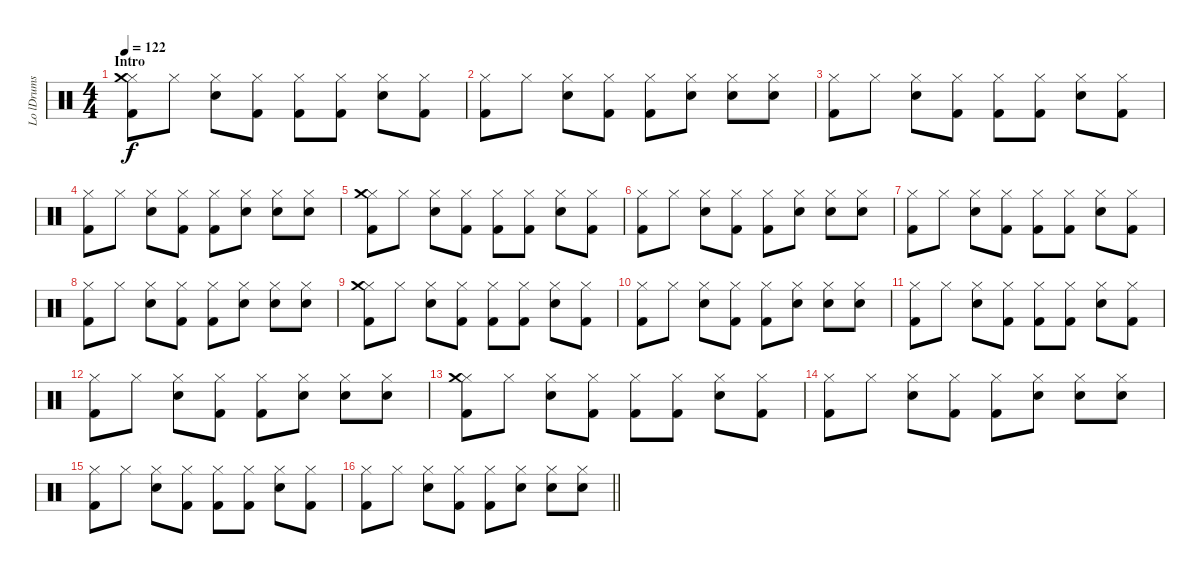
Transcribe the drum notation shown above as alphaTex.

\track ("Lo lDrums" "Lo lDrums") {instrument percussion}
\staff {score}
\articulation defaults
\ts (4 4)
\section ("" "Intro")
\tempo 122
\clef neutral
\ks c
("Hi-Hat (closed)" "Crash medium (hit)" "Kick (hit) 2").8{dy f} "Hi-Hat (closed)".8 ("Hi-Hat (closed)" "Snare (hit) 2").8 ("Hi-Hat (closed)" "Kick (hit) 2").8 ("Hi-Hat (closed)" "Kick (hit) 2").8 ("Hi-Hat (closed)" "Kick (hit) 2").8 ("Hi-Hat (closed)" "Snare (hit) 2").8 ("Hi-Hat (closed)" "Kick (hit) 2").8 |
("Kick (hit) 2" "Hi-Hat (closed)").8 "Hi-Hat (closed)".8 ("Snare (hit) 2" "Hi-Hat (closed)").8 ("Kick (hit) 2" "Hi-Hat (closed)").8 ("Kick (hit) 2" "Hi-Hat (closed)").8 ("Snare (hit) 2" "Hi-Hat (closed)").8 ("Snare (hit) 2" "Hi-Hat (closed)").8 ("Snare (hit) 2" "Hi-Hat (closed)").8 |
("Kick (hit) 2" "Hi-Hat (closed)").8 "Hi-Hat (closed)".8 ("Hi-Hat (closed)" "Snare (hit) 2").8 ("Hi-Hat (closed)" "Kick (hit) 2").8 ("Hi-Hat (closed)" "Kick (hit) 2").8 ("Hi-Hat (closed)" "Kick (hit) 2").8 ("Hi-Hat (closed)" "Snare (hit) 2").8 ("Hi-Hat (closed)" "Kick (hit) 2").8 |
("Kick (hit) 2" "Hi-Hat (closed)").8 "Hi-Hat (closed)".8 ("Snare (hit) 2" "Hi-Hat (closed)").8 ("Kick (hit) 2" "Hi-Hat (closed)").8 ("Kick (hit) 2" "Hi-Hat (closed)").8 ("Snare (hit) 2" "Hi-Hat (closed)").8 ("Snare (hit) 2" "Hi-Hat (closed)").8 ("Snare (hit) 2" "Hi-Hat (closed)").8 |
("Hi-Hat (closed)" "Crash medium (hit)" "Kick (hit) 2").8 "Hi-Hat (closed)".8 ("Hi-Hat (closed)" "Snare (hit) 2").8 ("Hi-Hat (closed)" "Kick (hit) 2").8 ("Hi-Hat (closed)" "Kick (hit) 2").8 ("Hi-Hat (closed)" "Kick (hit) 2").8 ("Hi-Hat (closed)" "Snare (hit) 2").8 ("Hi-Hat (closed)" "Kick (hit) 2").8 |
("Kick (hit) 2" "Hi-Hat (closed)").8 "Hi-Hat (closed)".8 ("Snare (hit) 2" "Hi-Hat (closed)").8 ("Kick (hit) 2" "Hi-Hat (closed)").8 ("Kick (hit) 2" "Hi-Hat (closed)").8 ("Snare (hit) 2" "Hi-Hat (closed)").8 ("Snare (hit) 2" "Hi-Hat (closed)").8 ("Snare (hit) 2" "Hi-Hat (closed)").8 |
("Kick (hit) 2" "Hi-Hat (closed)").8 "Hi-Hat (closed)".8 ("Hi-Hat (closed)" "Snare (hit) 2").8 ("Hi-Hat (closed)" "Kick (hit) 2").8 ("Hi-Hat (closed)" "Kick (hit) 2").8 ("Hi-Hat (closed)" "Kick (hit) 2").8 ("Hi-Hat (closed)" "Snare (hit) 2").8 ("Hi-Hat (closed)" "Kick (hit) 2").8 |
("Kick (hit) 2" "Hi-Hat (closed)").8 "Hi-Hat (closed)".8 ("Snare (hit) 2" "Hi-Hat (closed)").8 ("Kick (hit) 2" "Hi-Hat (closed)").8 ("Kick (hit) 2" "Hi-Hat (closed)").8 ("Snare (hit) 2" "Hi-Hat (closed)").8 ("Snare (hit) 2" "Hi-Hat (closed)").8 ("Snare (hit) 2" "Hi-Hat (closed)").8 |
("Hi-Hat (closed)" "Crash medium (hit)" "Kick (hit) 2").8 "Hi-Hat (closed)".8 ("Hi-Hat (closed)" "Snare (hit) 2").8 ("Hi-Hat (closed)" "Kick (hit) 2").8 ("Hi-Hat (closed)" "Kick (hit) 2").8 ("Hi-Hat (closed)" "Kick (hit) 2").8 ("Hi-Hat (closed)" "Snare (hit) 2").8 ("Hi-Hat (closed)" "Kick (hit) 2").8 |
("Kick (hit) 2" "Hi-Hat (closed)").8 "Hi-Hat (closed)".8 ("Snare (hit) 2" "Hi-Hat (closed)").8 ("Kick (hit) 2" "Hi-Hat (closed)").8 ("Kick (hit) 2" "Hi-Hat (closed)").8 ("Snare (hit) 2" "Hi-Hat (closed)").8 ("Snare (hit) 2" "Hi-Hat (closed)").8 ("Snare (hit) 2" "Hi-Hat (closed)").8 |
("Kick (hit) 2" "Hi-Hat (closed)").8 "Hi-Hat (closed)".8 ("Hi-Hat (closed)" "Snare (hit) 2").8 ("Hi-Hat (closed)" "Kick (hit) 2").8 ("Hi-Hat (closed)" "Kick (hit) 2").8 ("Hi-Hat (closed)" "Kick (hit) 2").8 ("Hi-Hat (closed)" "Snare (hit) 2").8 ("Hi-Hat (closed)" "Kick (hit) 2").8 |
("Kick (hit) 2" "Hi-Hat (closed)").8 "Hi-Hat (closed)".8 ("Snare (hit) 2" "Hi-Hat (closed)").8 ("Kick (hit) 2" "Hi-Hat (closed)").8 ("Kick (hit) 2" "Hi-Hat (closed)").8 ("Snare (hit) 2" "Hi-Hat (closed)").8 ("Snare (hit) 2" "Hi-Hat (closed)").8 ("Snare (hit) 2" "Hi-Hat (closed)").8 |
("Hi-Hat (closed)" "Crash medium (hit)" "Kick (hit) 2").8 "Hi-Hat (closed)".8 ("Hi-Hat (closed)" "Snare (hit) 2").8 ("Hi-Hat (closed)" "Kick (hit) 2").8 ("Hi-Hat (closed)" "Kick (hit) 2").8 ("Hi-Hat (closed)" "Kick (hit) 2").8 ("Hi-Hat (closed)" "Snare (hit) 2").8 ("Hi-Hat (closed)" "Kick (hit) 2").8 |
("Kick (hit) 2" "Hi-Hat (closed)").8 "Hi-Hat (closed)".8 ("Snare (hit) 2" "Hi-Hat (closed)").8 ("Kick (hit) 2" "Hi-Hat (closed)").8 ("Kick (hit) 2" "Hi-Hat (closed)").8 ("Snare (hit) 2" "Hi-Hat (closed)").8 ("Snare (hit) 2" "Hi-Hat (closed)").8 ("Snare (hit) 2" "Hi-Hat (closed)").8 |
("Kick (hit) 2" "Hi-Hat (closed)").8 "Hi-Hat (closed)".8 ("Hi-Hat (closed)" "Snare (hit) 2").8 ("Hi-Hat (closed)" "Kick (hit) 2").8 ("Hi-Hat (closed)" "Kick (hit) 2").8 ("Hi-Hat (closed)" "Kick (hit) 2").8 ("Hi-Hat (closed)" "Snare (hit) 2").8 ("Hi-Hat (closed)" "Kick (hit) 2").8 |
\barLineRight lightlight
("Kick (hit) 2" "Hi-Hat (closed)").8 "Hi-Hat (closed)".8 ("Snare (hit) 2" "Hi-Hat (closed)").8 ("Kick (hit) 2" "Hi-Hat (closed)").8 ("Kick (hit) 2" "Hi-Hat (closed)").8 ("Snare (hit) 2" "Hi-Hat (closed)").8 ("Snare (hit) 2" "Hi-Hat (closed)").8 ("Snare (hit) 2" "Hi-Hat (closed)").8
